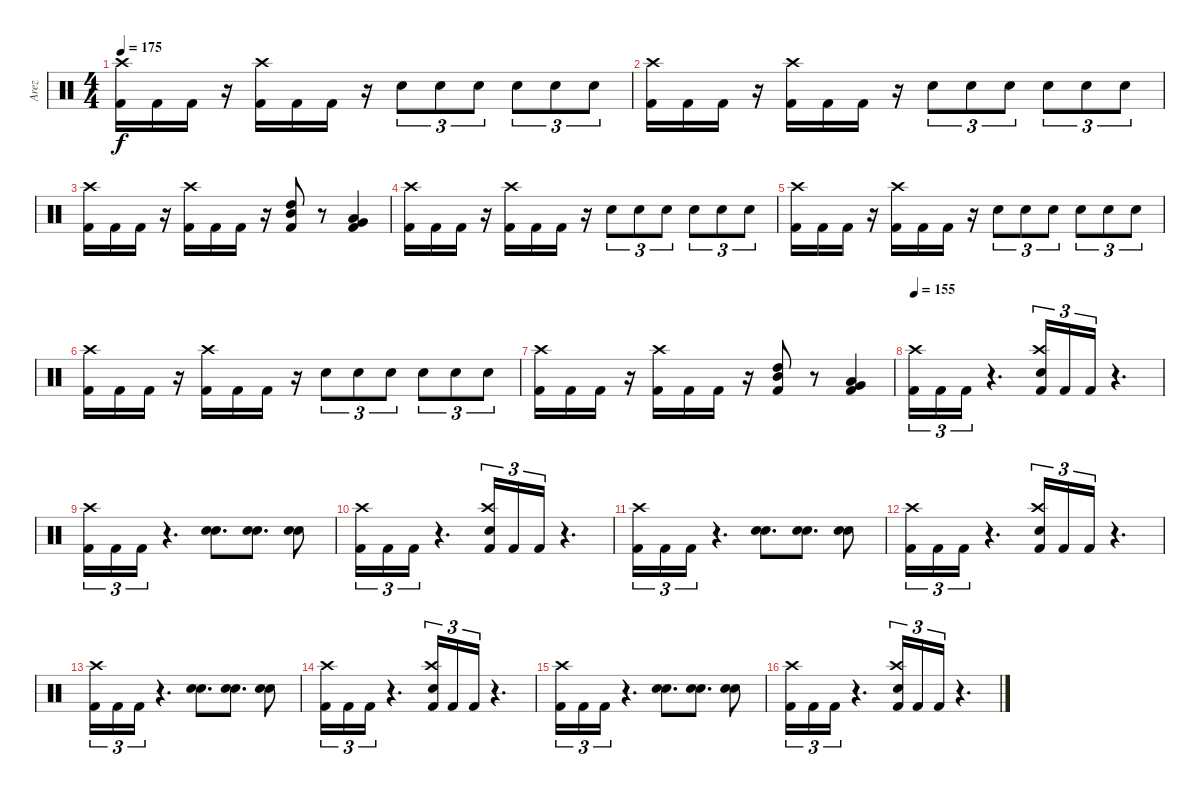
\track ("Arez" "Arez") {instrument percussion}
\staff {score}
\articulation defaults
\ts (4 4)
\tempo 175
\clef neutral
\ks c
("Kick (hit) 2" "Crash high (hit)").16{dy f} "Kick (hit) 2".16 "Kick (hit) 2".16 r.16 ("Crash high (hit)" "Kick (hit) 2").16 "Kick (hit) 2".16 "Kick (hit) 2".16 r.16 "Electric Snare (hit)".8{tu (3 2)} "Electric Snare (hit)".8{tu (3 2)} "Electric Snare (hit)".8{tu (3 2)} "Electric Snare (hit)".8{tu (3 2)} "Electric Snare (hit)".8{tu (3 2)} "Electric Snare (hit)".8{tu (3 2)} |
("Kick (hit) 2" "Crash high (hit)").16 "Kick (hit) 2".16 "Kick (hit) 2".16 r.16 ("Crash high (hit)" "Kick (hit) 2").16 "Kick (hit) 2".16 "Kick (hit) 2".16 r.16 "Electric Snare (hit)".8{tu (3 2)} "Electric Snare (hit)".8{tu (3 2)} "Electric Snare (hit)".8{tu (3 2)} "Electric Snare (hit)".8{tu (3 2)} "Electric Snare (hit)".8{tu (3 2)} "Electric Snare (hit)".8{tu (3 2)} |
("Kick (hit) 2" "Crash high (hit)").16 "Kick (hit) 2".16 "Kick (hit) 2".16 r.16 ("Crash high (hit)" "Kick (hit) 2").16 "Kick (hit) 2".16 "Kick (hit) 2".16 r.16 ("Kick (hit) 2" "High Tom (hit)" "Mid Tom (hit)").8 r.8 ("Very Low Tom (hit)" "Low Tom (hit)" "Kick (hit) 2").4 |
("Kick (hit) 2" "Crash high (hit)").16 "Kick (hit) 2".16 "Kick (hit) 2".16 r.16 ("Crash high (hit)" "Kick (hit) 2").16 "Kick (hit) 2".16 "Kick (hit) 2".16 r.16 "Electric Snare (hit)".8{tu (3 2)} "Electric Snare (hit)".8{tu (3 2)} "Electric Snare (hit)".8{tu (3 2)} "Electric Snare (hit)".8{tu (3 2)} "Electric Snare (hit)".8{tu (3 2)} "Electric Snare (hit)".8{tu (3 2)} |
("Kick (hit) 2" "Crash high (hit)").16 "Kick (hit) 2".16 "Kick (hit) 2".16 r.16 ("Crash high (hit)" "Kick (hit) 2").16 "Kick (hit) 2".16 "Kick (hit) 2".16 r.16 "Electric Snare (hit)".8{tu (3 2)} "Electric Snare (hit)".8{tu (3 2)} "Electric Snare (hit)".8{tu (3 2)} "Electric Snare (hit)".8{tu (3 2)} "Electric Snare (hit)".8{tu (3 2)} "Electric Snare (hit)".8{tu (3 2)} |
("Kick (hit) 2" "Crash high (hit)").16 "Kick (hit) 2".16 "Kick (hit) 2".16 r.16 ("Crash high (hit)" "Kick (hit) 2").16 "Kick (hit) 2".16 "Kick (hit) 2".16 r.16 "Electric Snare (hit)".8{tu (3 2)} "Electric Snare (hit)".8{tu (3 2)} "Electric Snare (hit)".8{tu (3 2)} "Electric Snare (hit)".8{tu (3 2)} "Electric Snare (hit)".8{tu (3 2)} "Electric Snare (hit)".8{tu (3 2)} |
("Kick (hit) 2" "Crash high (hit)").16 "Kick (hit) 2".16 "Kick (hit) 2".16 r.16 ("Crash high (hit)" "Kick (hit) 2").16 "Kick (hit) 2".16 "Kick (hit) 2".16 r.16 ("Kick (hit) 2" "High Tom (hit)" "Mid Tom (hit)").8 r.8 ("Very Low Tom (hit)" "Low Tom (hit)" "Kick (hit) 2").4 |
\tempo 155
("Kick (hit) 2" "Crash high (hit)").16{tu (3 2)} "Kick (hit) 2".16{tu (3 2)} "Kick (hit) 2".16{tu (3 2)} r.4{d} ("Kick (hit) 2" "Crash high (hit)" "Electric Snare (hit)").16{tu (3 2)} "Kick (hit) 2".16{tu (3 2)} "Kick (hit) 2".16{tu (3 2)} r.4{d} |
("Kick (hit) 2" "Crash high (hit)").16{tu (3 2)} "Kick (hit) 2".16{tu (3 2)} "Kick (hit) 2".16{tu (3 2)} r.4{d} ("Electric Snare (hit)" "Electric Snare (hit)").8{d} ("Electric Snare (hit)" "Electric Snare (hit)").8{d} ("Electric Snare (hit)" "Electric Snare (hit)").8 |
("Kick (hit) 2" "Crash high (hit)").16{tu (3 2)} "Kick (hit) 2".16{tu (3 2)} "Kick (hit) 2".16{tu (3 2)} r.4{d} ("Kick (hit) 2" "Crash high (hit)" "Electric Snare (hit)").16{tu (3 2)} "Kick (hit) 2".16{tu (3 2)} "Kick (hit) 2".16{tu (3 2)} r.4{d} |
("Kick (hit) 2" "Crash high (hit)").16{tu (3 2)} "Kick (hit) 2".16{tu (3 2)} "Kick (hit) 2".16{tu (3 2)} r.4{d} ("Electric Snare (hit)" "Electric Snare (hit)").8{d} ("Electric Snare (hit)" "Electric Snare (hit)").8{d} ("Electric Snare (hit)" "Electric Snare (hit)").8 |
("Kick (hit) 2" "Crash high (hit)").16{tu (3 2)} "Kick (hit) 2".16{tu (3 2)} "Kick (hit) 2".16{tu (3 2)} r.4{d} ("Kick (hit) 2" "Crash high (hit)" "Electric Snare (hit)").16{tu (3 2)} "Kick (hit) 2".16{tu (3 2)} "Kick (hit) 2".16{tu (3 2)} r.4{d} |
("Kick (hit) 2" "Crash high (hit)").16{tu (3 2)} "Kick (hit) 2".16{tu (3 2)} "Kick (hit) 2".16{tu (3 2)} r.4{d} ("Electric Snare (hit)" "Electric Snare (hit)").8{d} ("Electric Snare (hit)" "Electric Snare (hit)").8{d} ("Electric Snare (hit)" "Electric Snare (hit)").8 |
("Kick (hit) 2" "Crash high (hit)").16{tu (3 2)} "Kick (hit) 2".16{tu (3 2)} "Kick (hit) 2".16{tu (3 2)} r.4{d} ("Kick (hit) 2" "Crash high (hit)" "Electric Snare (hit)").16{tu (3 2)} "Kick (hit) 2".16{tu (3 2)} "Kick (hit) 2".16{tu (3 2)} r.4{d} |
("Kick (hit) 2" "Crash high (hit)").16{tu (3 2)} "Kick (hit) 2".16{tu (3 2)} "Kick (hit) 2".16{tu (3 2)} r.4{d} ("Electric Snare (hit)" "Electric Snare (hit)").8{d} ("Electric Snare (hit)" "Electric Snare (hit)").8{d} ("Electric Snare (hit)" "Electric Snare (hit)").8 |
("Kick (hit) 2" "Crash high (hit)").16{tu (3 2)} "Kick (hit) 2".16{tu (3 2)} "Kick (hit) 2".16{tu (3 2)} r.4{d} ("Kick (hit) 2" "Crash high (hit)" "Electric Snare (hit)").16{tu (3 2)} "Kick (hit) 2".16{tu (3 2)} "Kick (hit) 2".16{tu (3 2)} r.4{d}
